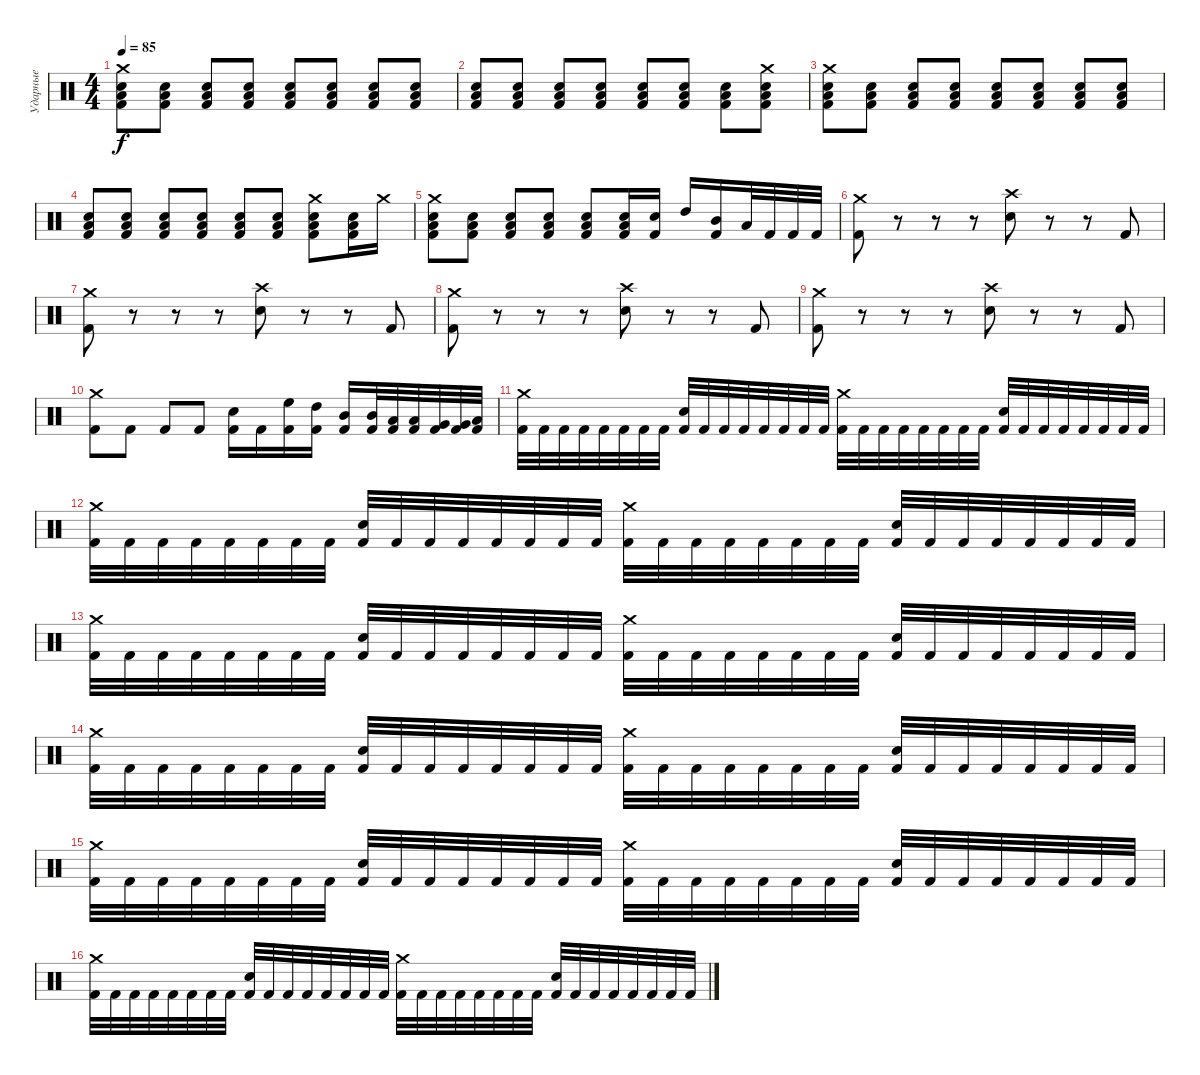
\track ("Ударные" "Ударные") {instrument percussion}
\staff {score}
\articulation defaults
\ts (4 4)
\tempo 85
\clef neutral
\ks c
("Crash medium (hit)" "Electric Snare (hit)" "Low Floor Tom (hit)" "Kick (hit) 2").8{dy f} ("Electric Snare (hit)" "Low Floor Tom (hit)" "Kick (hit) 2").8 ("Electric Snare (hit)" "Low Floor Tom (hit)" "Kick (hit) 2").8 ("Electric Snare (hit)" "Low Floor Tom (hit)" "Kick (hit) 2").8 ("Electric Snare (hit)" "Low Floor Tom (hit)" "Kick (hit) 2").8 ("Electric Snare (hit)" "Low Floor Tom (hit)" "Kick (hit) 2").8 ("Electric Snare (hit)" "Low Floor Tom (hit)" "Kick (hit) 2").8 ("Electric Snare (hit)" "Low Floor Tom (hit)" "Kick (hit) 2").8 |
("Electric Snare (hit)" "Low Floor Tom (hit)" "Kick (hit) 2").8 ("Electric Snare (hit)" "Low Floor Tom (hit)" "Kick (hit) 2").8 ("Electric Snare (hit)" "Low Floor Tom (hit)" "Kick (hit) 2").8 ("Electric Snare (hit)" "Low Floor Tom (hit)" "Kick (hit) 2").8 ("Electric Snare (hit)" "Low Floor Tom (hit)" "Kick (hit) 2").8 ("Electric Snare (hit)" "Low Floor Tom (hit)" "Kick (hit) 2").8 ("Electric Snare (hit)" "Low Floor Tom (hit)" "Kick (hit) 2").8 ("Crash medium (hit)" "Electric Snare (hit)" "Low Floor Tom (hit)" "Kick (hit) 2").8 |
("Crash medium (hit)" "Electric Snare (hit)" "Low Floor Tom (hit)" "Kick (hit) 2").8 ("Electric Snare (hit)" "Low Floor Tom (hit)" "Kick (hit) 2").8 ("Electric Snare (hit)" "Low Floor Tom (hit)" "Kick (hit) 2").8 ("Electric Snare (hit)" "Low Floor Tom (hit)" "Kick (hit) 2").8 ("Electric Snare (hit)" "Low Floor Tom (hit)" "Kick (hit) 2").8 ("Electric Snare (hit)" "Low Floor Tom (hit)" "Kick (hit) 2").8 ("Electric Snare (hit)" "Low Floor Tom (hit)" "Kick (hit) 2").8 ("Electric Snare (hit)" "Low Floor Tom (hit)" "Kick (hit) 2").8 |
("Electric Snare (hit)" "Low Floor Tom (hit)" "Kick (hit) 2").8 ("Electric Snare (hit)" "Low Floor Tom (hit)" "Kick (hit) 2").8 ("Electric Snare (hit)" "Low Floor Tom (hit)" "Kick (hit) 2").8 ("Electric Snare (hit)" "Low Floor Tom (hit)" "Kick (hit) 2").8 ("Electric Snare (hit)" "Low Floor Tom (hit)" "Kick (hit) 2").8 ("Electric Snare (hit)" "Low Floor Tom (hit)" "Kick (hit) 2").8 ("Crash medium (hit)" "Electric Snare (hit)" "Low Floor Tom (hit)" "Kick (hit) 2").8 ("Electric Snare (hit)" "Low Floor Tom (hit)" "Kick (hit) 2").16 "Crash medium (hit)".16 |
("Crash medium (hit)" "Electric Snare (hit)" "Low Floor Tom (hit)" "Kick (hit) 2").8 ("Electric Snare (hit)" "Low Floor Tom (hit)" "Kick (hit) 2").8 ("Electric Snare (hit)" "Low Floor Tom (hit)" "Kick (hit) 2").8 ("Electric Snare (hit)" "Low Floor Tom (hit)" "Kick (hit) 2").8 ("Electric Snare (hit)" "Low Floor Tom (hit)" "Kick (hit) 2").8 ("Electric Snare (hit)" "Low Floor Tom (hit)" "Kick (hit) 2").16 ("Electric Snare (hit)" "Kick (hit) 2").16 "High Tom (hit)".16 ("Mid Tom (hit)" "Kick (hit) 2").16 "Low Tom (hit)".32 "Kick (hit) 2".32 "Kick (hit) 2".32 "Kick (hit) 2".32 |
("Crash medium (hit)" "Kick (hit) 2").8 r.8 r.8 r.8 ("Crash high (hit)" "Electric Snare (hit)").8 r.8 r.8 "Kick (hit) 2".8 |
("Crash medium (hit)" "Kick (hit) 2").8 r.8 r.8 r.8 ("Crash high (hit)" "Electric Snare (hit)").8 r.8 r.8 "Kick (hit) 2".8 |
("Crash medium (hit)" "Kick (hit) 2").8 r.8 r.8 r.8 ("Crash high (hit)" "Electric Snare (hit)").8 r.8 r.8 "Kick (hit) 2".8 |
("Crash medium (hit)" "Kick (hit) 2").8 r.8 r.8 r.8 ("Crash high (hit)" "Electric Snare (hit)").8 r.8 r.8 "Kick (hit) 2".8 |
("Crash medium (hit)" "Kick (hit) 2").8 "Kick (hit) 2".8 "Kick (hit) 2".8 "Kick (hit) 2".8 ("Electric Snare (hit)" "Kick (hit) 2").16 "Kick (hit) 2".16 ("High Floor Tom (hit)" "Kick (hit) 2").16 ("High Tom (hit)" "Kick (hit) 2").16 ("Mid Tom (hit)" "Kick (hit) 2").16 ("Mid Tom (hit)" "Kick (hit) 2").32 ("Low Tom (hit)" "Kick (hit) 2").32 ("Low Tom (hit)" "Kick (hit) 2").32 ("Very Low Tom (hit)" "Kick (hit) 2").32 ("Very Low Tom (hit)" "Kick (hit) 2").32 ("Low Floor Tom (hit)" "Kick (hit) 2").32 |
("Crash medium (hit)" "Kick (hit) 2").32 "Kick (hit) 2".32 "Kick (hit) 2".32 "Kick (hit) 2".32 "Kick (hit) 2".32 "Kick (hit) 2".32 "Kick (hit) 2".32 "Kick (hit) 2".32 ("Electric Snare (hit)" "Kick (hit) 2").32 "Kick (hit) 2".32 "Kick (hit) 2".32 "Kick (hit) 2".32 "Kick (hit) 2".32 "Kick (hit) 2".32 "Kick (hit) 2".32 "Kick (hit) 2".32 ("Crash medium (hit)" "Kick (hit) 2").32 "Kick (hit) 2".32 "Kick (hit) 2".32 "Kick (hit) 2".32 "Kick (hit) 2".32 "Kick (hit) 2".32 "Kick (hit) 2".32 "Kick (hit) 2".32 ("Electric Snare (hit)" "Kick (hit) 2").32 "Kick (hit) 2".32 "Kick (hit) 2".32 "Kick (hit) 2".32 "Kick (hit) 2".32 "Kick (hit) 2".32 "Kick (hit) 2".32 "Kick (hit) 2".32 |
("Crash medium (hit)" "Kick (hit) 2").32 "Kick (hit) 2".32 "Kick (hit) 2".32 "Kick (hit) 2".32 "Kick (hit) 2".32 "Kick (hit) 2".32 "Kick (hit) 2".32 "Kick (hit) 2".32 ("Electric Snare (hit)" "Kick (hit) 2").32 "Kick (hit) 2".32 "Kick (hit) 2".32 "Kick (hit) 2".32 "Kick (hit) 2".32 "Kick (hit) 2".32 "Kick (hit) 2".32 "Kick (hit) 2".32 ("Crash medium (hit)" "Kick (hit) 2").32 "Kick (hit) 2".32 "Kick (hit) 2".32 "Kick (hit) 2".32 "Kick (hit) 2".32 "Kick (hit) 2".32 "Kick (hit) 2".32 "Kick (hit) 2".32 ("Electric Snare (hit)" "Kick (hit) 2").32 "Kick (hit) 2".32 "Kick (hit) 2".32 "Kick (hit) 2".32 "Kick (hit) 2".32 "Kick (hit) 2".32 "Kick (hit) 2".32 "Kick (hit) 2".32 |
("Crash medium (hit)" "Kick (hit) 2").32 "Kick (hit) 2".32 "Kick (hit) 2".32 "Kick (hit) 2".32 "Kick (hit) 2".32 "Kick (hit) 2".32 "Kick (hit) 2".32 "Kick (hit) 2".32 ("Electric Snare (hit)" "Kick (hit) 2").32 "Kick (hit) 2".32 "Kick (hit) 2".32 "Kick (hit) 2".32 "Kick (hit) 2".32 "Kick (hit) 2".32 "Kick (hit) 2".32 "Kick (hit) 2".32 ("Crash medium (hit)" "Kick (hit) 2").32 "Kick (hit) 2".32 "Kick (hit) 2".32 "Kick (hit) 2".32 "Kick (hit) 2".32 "Kick (hit) 2".32 "Kick (hit) 2".32 "Kick (hit) 2".32 ("Electric Snare (hit)" "Kick (hit) 2").32 "Kick (hit) 2".32 "Kick (hit) 2".32 "Kick (hit) 2".32 "Kick (hit) 2".32 "Kick (hit) 2".32 "Kick (hit) 2".32 "Kick (hit) 2".32 |
("Crash medium (hit)" "Kick (hit) 2").32 "Kick (hit) 2".32 "Kick (hit) 2".32 "Kick (hit) 2".32 "Kick (hit) 2".32 "Kick (hit) 2".32 "Kick (hit) 2".32 "Kick (hit) 2".32 ("Electric Snare (hit)" "Kick (hit) 2").32 "Kick (hit) 2".32 "Kick (hit) 2".32 "Kick (hit) 2".32 "Kick (hit) 2".32 "Kick (hit) 2".32 "Kick (hit) 2".32 "Kick (hit) 2".32 ("Crash medium (hit)" "Kick (hit) 2").32 "Kick (hit) 2".32 "Kick (hit) 2".32 "Kick (hit) 2".32 "Kick (hit) 2".32 "Kick (hit) 2".32 "Kick (hit) 2".32 "Kick (hit) 2".32 ("Electric Snare (hit)" "Kick (hit) 2").32 "Kick (hit) 2".32 "Kick (hit) 2".32 "Kick (hit) 2".32 "Kick (hit) 2".32 "Kick (hit) 2".32 "Kick (hit) 2".32 "Kick (hit) 2".32 |
("Crash medium (hit)" "Kick (hit) 2").32 "Kick (hit) 2".32 "Kick (hit) 2".32 "Kick (hit) 2".32 "Kick (hit) 2".32 "Kick (hit) 2".32 "Kick (hit) 2".32 "Kick (hit) 2".32 ("Electric Snare (hit)" "Kick (hit) 2").32 "Kick (hit) 2".32 "Kick (hit) 2".32 "Kick (hit) 2".32 "Kick (hit) 2".32 "Kick (hit) 2".32 "Kick (hit) 2".32 "Kick (hit) 2".32 ("Crash medium (hit)" "Kick (hit) 2").32 "Kick (hit) 2".32 "Kick (hit) 2".32 "Kick (hit) 2".32 "Kick (hit) 2".32 "Kick (hit) 2".32 "Kick (hit) 2".32 "Kick (hit) 2".32 ("Electric Snare (hit)" "Kick (hit) 2").32 "Kick (hit) 2".32 "Kick (hit) 2".32 "Kick (hit) 2".32 "Kick (hit) 2".32 "Kick (hit) 2".32 "Kick (hit) 2".32 "Kick (hit) 2".32 |
("Crash medium (hit)" "Kick (hit) 2").32 "Kick (hit) 2".32 "Kick (hit) 2".32 "Kick (hit) 2".32 "Kick (hit) 2".32 "Kick (hit) 2".32 "Kick (hit) 2".32 "Kick (hit) 2".32 ("Electric Snare (hit)" "Kick (hit) 2").32 "Kick (hit) 2".32 "Kick (hit) 2".32 "Kick (hit) 2".32 "Kick (hit) 2".32 "Kick (hit) 2".32 "Kick (hit) 2".32 "Kick (hit) 2".32 ("Crash medium (hit)" "Kick (hit) 2").32 "Kick (hit) 2".32 "Kick (hit) 2".32 "Kick (hit) 2".32 "Kick (hit) 2".32 "Kick (hit) 2".32 "Kick (hit) 2".32 "Kick (hit) 2".32 ("Electric Snare (hit)" "Kick (hit) 2").32 "Kick (hit) 2".32 "Kick (hit) 2".32 "Kick (hit) 2".32 "Kick (hit) 2".32 "Kick (hit) 2".32 "Kick (hit) 2".32 "Kick (hit) 2".32
